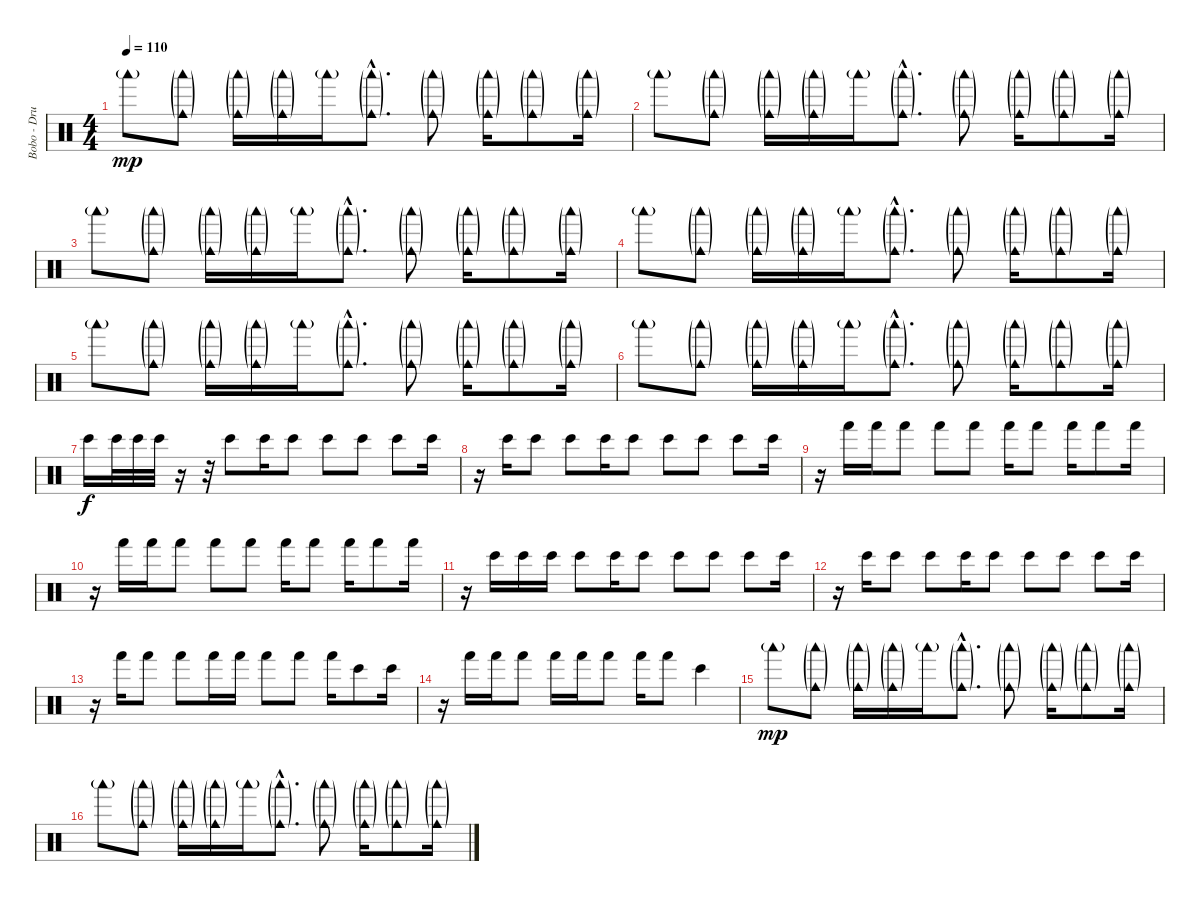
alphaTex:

\track ("Bobo - Drums" "Bobo - Dru") {instrument percussion}
\staff {score}
\articulation defaults
\ts (4 4)
\tempo 110
\clef neutral
\ks c "Woodblock low (hit)"{g}.8{dy mp}
("Woodblock low (hit)"{g} "Cowbell medium (hit)"{g}).8 ("Woodblock low (hit)"{g} "Cowbell medium (hit)"{g}).16 ("Woodblock low (hit)"{g} "Cowbell medium (hit)"{g}).16 "Woodblock low (hit)"{g}.16 ("Woodblock low (hit)"{g hac} "Cowbell medium (hit)"{g hac}).8{d} ("Woodblock low (hit)"{g} "Cowbell medium (hit)"{g}).8 ("Woodblock low (hit)"{g} "Cowbell medium (hit)"{g}).16 ("Woodblock low (hit)"{g} "Cowbell medium (hit)"{g}).8 ("Woodblock low (hit)"{g} "Cowbell medium (hit)"{g}).16 |
"Woodblock low (hit)"{g}.8 ("Woodblock low (hit)"{g} "Cowbell medium (hit)"{g}).8 ("Woodblock low (hit)"{g} "Cowbell medium (hit)"{g}).16 ("Woodblock low (hit)"{g} "Cowbell medium (hit)"{g}).16 "Woodblock low (hit)"{g}.16 ("Woodblock low (hit)"{g hac} "Cowbell medium (hit)"{g hac}).8{d} ("Woodblock low (hit)"{g} "Cowbell medium (hit)"{g}).8 ("Woodblock low (hit)"{g} "Cowbell medium (hit)"{g}).16 ("Woodblock low (hit)"{g} "Cowbell medium (hit)"{g}).8 ("Woodblock low (hit)"{g} "Cowbell medium (hit)"{g}).16 |
"Woodblock low (hit)"{g}.8 ("Woodblock low (hit)"{g} "Cowbell medium (hit)"{g}).8 ("Woodblock low (hit)"{g} "Cowbell medium (hit)"{g}).16 ("Woodblock low (hit)"{g} "Cowbell medium (hit)"{g}).16 "Woodblock low (hit)"{g}.16 ("Woodblock low (hit)"{g hac} "Cowbell medium (hit)"{g hac}).8{d} ("Woodblock low (hit)"{g} "Cowbell medium (hit)"{g}).8 ("Woodblock low (hit)"{g} "Cowbell medium (hit)"{g}).16 ("Woodblock low (hit)"{g} "Cowbell medium (hit)"{g}).8 ("Woodblock low (hit)"{g} "Cowbell medium (hit)"{g}).16 |
"Woodblock low (hit)"{g}.8 ("Woodblock low (hit)"{g} "Cowbell medium (hit)"{g}).8 ("Woodblock low (hit)"{g} "Cowbell medium (hit)"{g}).16 ("Woodblock low (hit)"{g} "Cowbell medium (hit)"{g}).16 "Woodblock low (hit)"{g}.16 ("Woodblock low (hit)"{g hac} "Cowbell medium (hit)"{g hac}).8{d} ("Woodblock low (hit)"{g} "Cowbell medium (hit)"{g}).8 ("Woodblock low (hit)"{g} "Cowbell medium (hit)"{g}).16 ("Woodblock low (hit)"{g} "Cowbell medium (hit)"{g}).8 ("Woodblock low (hit)"{g} "Cowbell medium (hit)"{g}).16 |
"Woodblock low (hit)"{g}.8 ("Woodblock low (hit)"{g} "Cowbell medium (hit)"{g}).8 ("Woodblock low (hit)"{g} "Cowbell medium (hit)"{g}).16 ("Woodblock low (hit)"{g} "Cowbell medium (hit)"{g}).16 "Woodblock low (hit)"{g}.16 ("Woodblock low (hit)"{g hac} "Cowbell medium (hit)"{g hac}).8{d} ("Woodblock low (hit)"{g} "Cowbell medium (hit)"{g}).8 ("Woodblock low (hit)"{g} "Cowbell medium (hit)"{g}).16 ("Woodblock low (hit)"{g} "Cowbell medium (hit)"{g}).8 ("Woodblock low (hit)"{g} "Cowbell medium (hit)"{g}).16 |
"Woodblock low (hit)"{g}.8 ("Woodblock low (hit)"{g} "Cowbell medium (hit)"{g}).8 ("Woodblock low (hit)"{g} "Cowbell medium (hit)"{g}).16 ("Woodblock low (hit)"{g} "Cowbell medium (hit)"{g}).16 "Woodblock low (hit)"{g}.16 ("Woodblock low (hit)"{g hac} "Cowbell medium (hit)"{g hac}).8{d} ("Woodblock low (hit)"{g} "Cowbell medium (hit)"{g}).8 ("Woodblock low (hit)"{g} "Cowbell medium (hit)"{g}).16 ("Woodblock low (hit)"{g} "Cowbell medium (hit)"{g}).8 ("Woodblock low (hit)"{g} "Cowbell medium (hit)"{g}).16 |
"Bongo High (hit)".16{dy f} "Bongo High (hit)".32 "Bongo High (hit)".32 "Bongo High (hit)".32 r.16 r.32 "Bongo High (hit)".8 "Bongo High (hit)".16 "Bongo High (hit)".8 "Bongo High (hit)".8 "Bongo High (hit)".8 "Bongo High (hit)".8 "Bongo High (hit)".16 |
r.16 "Bongo High (hit)".16 "Bongo High (hit)".8 "Bongo High (hit)".8 "Bongo High (hit)".16 "Bongo High (hit)".8 "Bongo High (hit)".8 "Bongo High (hit)".8 "Bongo High (hit)".8 "Bongo High (hit)".16 |
r.16 "Hand (hit)".16 "Hand (hit)".16 "Hand (hit)".8 "Hand (hit)".8 "Hand (hit)".8 "Hand (hit)".16 "Hand (hit)".8 "Hand (hit)".16 "Hand (hit)".8 "Hand (hit)".16 |
r.16 "Hand (hit)".16 "Hand (hit)".16 "Hand (hit)".8 "Hand (hit)".8 "Hand (hit)".8 "Hand (hit)".16 "Hand (hit)".8 "Hand (hit)".16 "Hand (hit)".8 "Hand (hit)".16 |
r.16 "Bongo High (hit)".16 "Bongo High (hit)".16 "Bongo High (hit)".16 "Bongo High (hit)".8 "Bongo High (hit)".16 "Bongo High (hit)".8 "Bongo High (hit)".8 "Bongo High (hit)".8 "Bongo High (hit)".8 "Bongo High (hit)".16 |
r.16 "Bongo High (hit)".16 "Bongo High (hit)".8 "Bongo High (hit)".8 "Bongo High (hit)".16 "Bongo High (hit)".8 "Bongo High (hit)".8 "Bongo High (hit)".8 "Bongo High (hit)".8 "Bongo High (hit)".16 |
r.16 "Hand (hit)".16 "Hand (hit)".8 "Hand (hit)".8 "Hand (hit)".16 "Hand (hit)".16 "Hand (hit)".8 "Hand (hit)".8 "Hand (hit)".16 "Bongo High (hit)".8 "Bongo High (hit)".16 |
r.16 "Hand (hit)".16 "Hand (hit)".16 "Hand (hit)".8 "Hand (hit)".16 "Hand (hit)".16 "Hand (hit)".8 "Hand (hit)".16 "Hand (hit)".8 "Bongo High (hit)".4 |
"Woodblock low (hit)"{g}.8{dy mp} ("Woodblock low (hit)"{g} "Cowbell medium (hit)"{g}).8 ("Woodblock low (hit)"{g} "Cowbell medium (hit)"{g}).16 ("Woodblock low (hit)"{g} "Cowbell medium (hit)"{g}).16 "Woodblock low (hit)"{g}.16 ("Woodblock low (hit)"{g hac} "Cowbell medium (hit)"{g hac}).8{d} ("Woodblock low (hit)"{g} "Cowbell medium (hit)"{g}).8 ("Woodblock low (hit)"{g} "Cowbell medium (hit)"{g}).16 ("Woodblock low (hit)"{g} "Cowbell medium (hit)"{g}).8 ("Woodblock low (hit)"{g} "Cowbell medium (hit)"{g}).16 |
"Woodblock low (hit)"{g}.8 ("Woodblock low (hit)"{g} "Cowbell medium (hit)"{g}).8 ("Woodblock low (hit)"{g} "Cowbell medium (hit)"{g}).16 ("Woodblock low (hit)"{g} "Cowbell medium (hit)"{g}).16 "Woodblock low (hit)"{g}.16 ("Woodblock low (hit)"{g hac} "Cowbell medium (hit)"{g hac}).8{d} ("Woodblock low (hit)"{g} "Cowbell medium (hit)"{g}).8 ("Woodblock low (hit)"{g} "Cowbell medium (hit)"{g}).16 ("Woodblock low (hit)"{g} "Cowbell medium (hit)"{g}).8 ("Woodblock low (hit)"{g} "Cowbell medium (hit)"{g}).16
